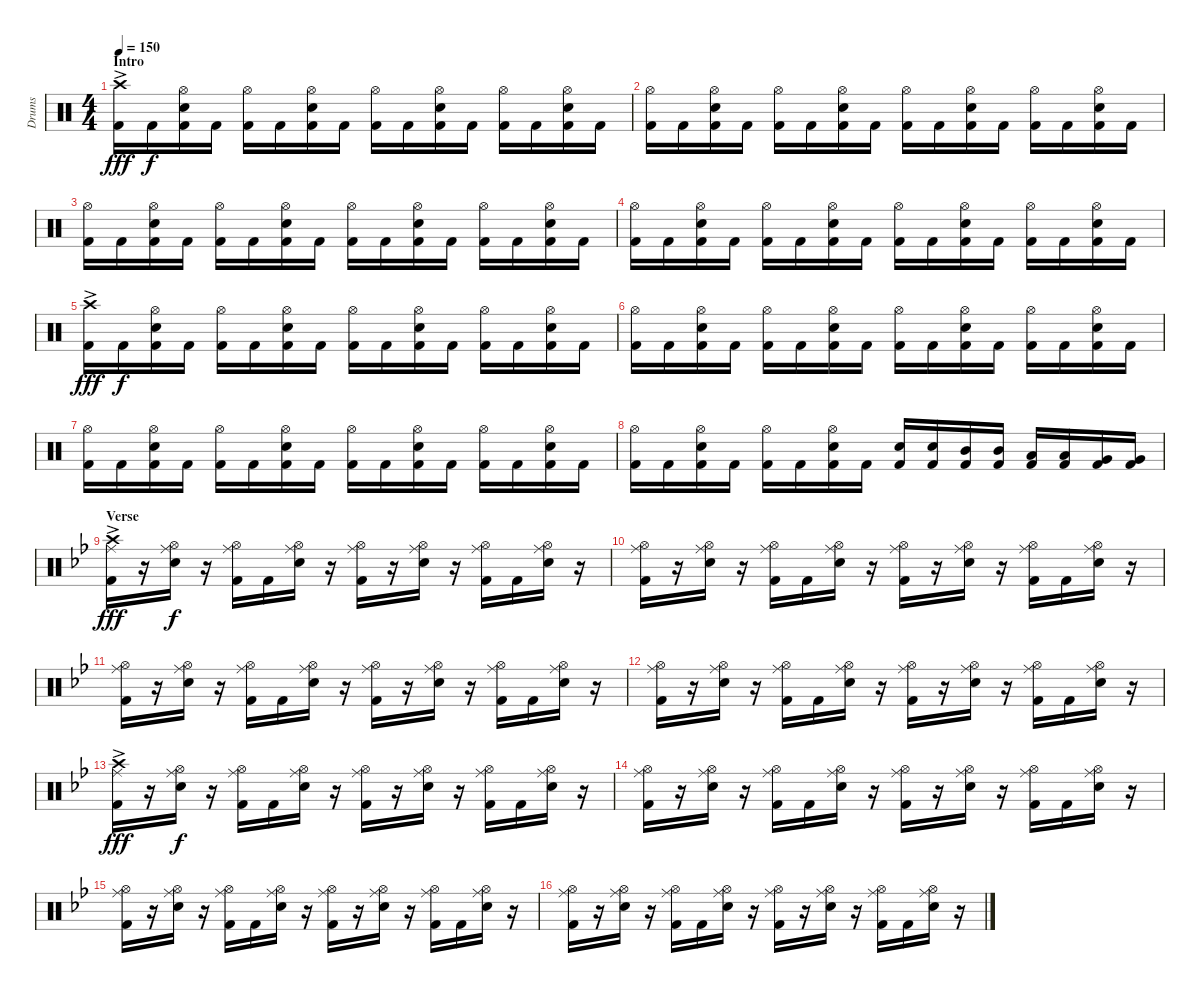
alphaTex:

\track ("Drums" "Drums") {instrument percussion}
\staff {score}
\articulation defaults
\ts (4 4)
\section ("" "Intro")
\tempo 150
\clef neutral
\ks aminor
("Kick (hit) 2"{ac} "Crash high (hit)").16{dy fff} "Kick (hit) 2".16{dy f} ("Kick (hit) 2" "Electric Snare (hit)" "Hi-Hat (open)").16 "Kick (hit) 2".16 ("Kick (hit) 2" "Hi-Hat (open)").16 "Kick (hit) 2".16 ("Kick (hit) 2" "Electric Snare (hit)" "Hi-Hat (open)").16 "Kick (hit) 2".16 ("Kick (hit) 2" "Hi-Hat (open)").16 "Kick (hit) 2".16 ("Kick (hit) 2" "Electric Snare (hit)" "Hi-Hat (open)").16 "Kick (hit) 2".16 ("Kick (hit) 2" "Hi-Hat (open)").16 "Kick (hit) 2".16 ("Kick (hit) 2" "Electric Snare (hit)" "Hi-Hat (open)").16 "Kick (hit) 2".16 |
("Kick (hit) 2" "Hi-Hat (open)").16 "Kick (hit) 2".16 ("Kick (hit) 2" "Electric Snare (hit)" "Hi-Hat (open)").16 "Kick (hit) 2".16 ("Kick (hit) 2" "Hi-Hat (open)").16 "Kick (hit) 2".16 ("Kick (hit) 2" "Electric Snare (hit)" "Hi-Hat (open)").16 "Kick (hit) 2".16 ("Kick (hit) 2" "Hi-Hat (open)").16 "Kick (hit) 2".16 ("Kick (hit) 2" "Electric Snare (hit)" "Hi-Hat (open)").16 "Kick (hit) 2".16 ("Kick (hit) 2" "Hi-Hat (open)").16 "Kick (hit) 2".16 ("Kick (hit) 2" "Electric Snare (hit)" "Hi-Hat (open)").16 "Kick (hit) 2".16 |
("Kick (hit) 2" "Hi-Hat (open)").16 "Kick (hit) 2".16 ("Kick (hit) 2" "Electric Snare (hit)" "Hi-Hat (open)").16 "Kick (hit) 2".16 ("Kick (hit) 2" "Hi-Hat (open)").16 "Kick (hit) 2".16 ("Kick (hit) 2" "Electric Snare (hit)" "Hi-Hat (open)").16 "Kick (hit) 2".16 ("Kick (hit) 2" "Hi-Hat (open)").16 "Kick (hit) 2".16 ("Kick (hit) 2" "Electric Snare (hit)" "Hi-Hat (open)").16 "Kick (hit) 2".16 ("Kick (hit) 2" "Hi-Hat (open)").16 "Kick (hit) 2".16 ("Kick (hit) 2" "Electric Snare (hit)" "Hi-Hat (open)").16 "Kick (hit) 2".16 |
("Kick (hit) 2" "Hi-Hat (open)").16 "Kick (hit) 2".16 ("Kick (hit) 2" "Electric Snare (hit)" "Hi-Hat (open)").16 "Kick (hit) 2".16 ("Kick (hit) 2" "Hi-Hat (open)").16 "Kick (hit) 2".16 ("Kick (hit) 2" "Electric Snare (hit)" "Hi-Hat (open)").16 "Kick (hit) 2".16 ("Kick (hit) 2" "Hi-Hat (open)").16 "Kick (hit) 2".16 ("Kick (hit) 2" "Electric Snare (hit)" "Hi-Hat (open)").16 "Kick (hit) 2".16 ("Kick (hit) 2" "Hi-Hat (open)").16 "Kick (hit) 2".16 ("Kick (hit) 2" "Electric Snare (hit)" "Hi-Hat (open)").16 "Kick (hit) 2".16 |
("Kick (hit) 2"{ac} "Crash high (hit)").16{dy fff} "Kick (hit) 2".16{dy f} ("Kick (hit) 2" "Electric Snare (hit)" "Hi-Hat (open)").16 "Kick (hit) 2".16 ("Kick (hit) 2" "Hi-Hat (open)").16 "Kick (hit) 2".16 ("Kick (hit) 2" "Electric Snare (hit)" "Hi-Hat (open)").16 "Kick (hit) 2".16 ("Kick (hit) 2" "Hi-Hat (open)").16 "Kick (hit) 2".16 ("Kick (hit) 2" "Electric Snare (hit)" "Hi-Hat (open)").16 "Kick (hit) 2".16 ("Kick (hit) 2" "Hi-Hat (open)").16 "Kick (hit) 2".16 ("Kick (hit) 2" "Electric Snare (hit)" "Hi-Hat (open)").16 "Kick (hit) 2".16 |
("Kick (hit) 2" "Hi-Hat (open)").16 "Kick (hit) 2".16 ("Kick (hit) 2" "Electric Snare (hit)" "Hi-Hat (open)").16 "Kick (hit) 2".16 ("Kick (hit) 2" "Hi-Hat (open)").16 "Kick (hit) 2".16 ("Kick (hit) 2" "Electric Snare (hit)" "Hi-Hat (open)").16 "Kick (hit) 2".16 ("Kick (hit) 2" "Hi-Hat (open)").16 "Kick (hit) 2".16 ("Kick (hit) 2" "Electric Snare (hit)" "Hi-Hat (open)").16 "Kick (hit) 2".16 ("Kick (hit) 2" "Hi-Hat (open)").16 "Kick (hit) 2".16 ("Kick (hit) 2" "Electric Snare (hit)" "Hi-Hat (open)").16 "Kick (hit) 2".16 |
("Kick (hit) 2" "Hi-Hat (open)").16 "Kick (hit) 2".16 ("Kick (hit) 2" "Electric Snare (hit)" "Hi-Hat (open)").16 "Kick (hit) 2".16 ("Kick (hit) 2" "Hi-Hat (open)").16 "Kick (hit) 2".16 ("Kick (hit) 2" "Electric Snare (hit)" "Hi-Hat (open)").16 "Kick (hit) 2".16 ("Kick (hit) 2" "Hi-Hat (open)").16 "Kick (hit) 2".16 ("Kick (hit) 2" "Electric Snare (hit)" "Hi-Hat (open)").16 "Kick (hit) 2".16 ("Kick (hit) 2" "Hi-Hat (open)").16 "Kick (hit) 2".16 ("Kick (hit) 2" "Electric Snare (hit)" "Hi-Hat (open)").16 "Kick (hit) 2".16 |
("Hi-Hat (open)" "Kick (hit) 2").16 "Kick (hit) 2".16 ("Hi-Hat (open)" "Electric Snare (hit)" "Kick (hit) 2").16 "Kick (hit) 2".16 ("Hi-Hat (open)" "Kick (hit) 2").16 "Kick (hit) 2".16 ("Hi-Hat (open)" "Electric Snare (hit)" "Kick (hit) 2").16 "Kick (hit) 2".16 ("Electric Snare (hit)" "Kick (hit) 2").16 ("Electric Snare (hit)" "Kick (hit) 2").16 ("Mid Tom (hit)" "Kick (hit) 2").16 ("Mid Tom (hit)" "Kick (hit) 2").16 ("Low Tom (hit)" "Kick (hit) 2").16 ("Low Tom (hit)" "Kick (hit) 2").16 ("Very Low Tom (hit)" "Kick (hit) 2").16 ("Very Low Tom (hit)" "Kick (hit) 2").16 |
\section ("" "Verse")
\ks gminor
("Crash high (hit)"{ac} "Ride (middle)" "Kick (hit) 2").16{dy fff} r.16 ("Hi-Hat (open)" "Ride (middle)" "Electric Snare (hit)").16{dy f} r.16 ("Hi-Hat (open)" "Ride (middle)" "Kick (hit) 2").16 "Kick (hit) 2".16 ("Hi-Hat (open)" "Ride (middle)" "Electric Snare (hit)").16 r.16 ("Hi-Hat (open)" "Ride (middle)" "Kick (hit) 2").16 r.16 ("Hi-Hat (open)" "Ride (middle)" "Electric Snare (hit)").16 r.16 ("Hi-Hat (open)" "Ride (middle)" "Kick (hit) 2").16 "Kick (hit) 2".16 ("Hi-Hat (open)" "Ride (middle)" "Electric Snare (hit)").16 r.16 |
("Hi-Hat (open)" "Ride (middle)" "Kick (hit) 2").16 r.16 ("Hi-Hat (open)" "Ride (middle)" "Electric Snare (hit)").16 r.16 ("Hi-Hat (open)" "Ride (middle)" "Kick (hit) 2").16 "Kick (hit) 2".16 ("Hi-Hat (open)" "Ride (middle)" "Electric Snare (hit)").16 r.16 ("Hi-Hat (open)" "Ride (middle)" "Kick (hit) 2").16 r.16 ("Hi-Hat (open)" "Ride (middle)" "Electric Snare (hit)").16 r.16 ("Hi-Hat (open)" "Ride (middle)" "Kick (hit) 2").16 "Kick (hit) 2".16 ("Hi-Hat (open)" "Ride (middle)" "Electric Snare (hit)").16 r.16 |
("Hi-Hat (open)" "Ride (middle)" "Kick (hit) 2").16 r.16 ("Hi-Hat (open)" "Ride (middle)" "Electric Snare (hit)").16 r.16 ("Hi-Hat (open)" "Ride (middle)" "Kick (hit) 2").16 "Kick (hit) 2".16 ("Hi-Hat (open)" "Ride (middle)" "Electric Snare (hit)").16 r.16 ("Hi-Hat (open)" "Ride (middle)" "Kick (hit) 2").16 r.16 ("Hi-Hat (open)" "Ride (middle)" "Electric Snare (hit)").16 r.16 ("Hi-Hat (open)" "Ride (middle)" "Kick (hit) 2").16 "Kick (hit) 2".16 ("Hi-Hat (open)" "Ride (middle)" "Electric Snare (hit)").16 r.16 |
("Hi-Hat (open)" "Ride (middle)" "Kick (hit) 2").16 r.16 ("Hi-Hat (open)" "Ride (middle)" "Electric Snare (hit)").16 r.16 ("Hi-Hat (open)" "Ride (middle)" "Kick (hit) 2").16 "Kick (hit) 2".16 ("Hi-Hat (open)" "Ride (middle)" "Electric Snare (hit)").16 r.16 ("Hi-Hat (open)" "Ride (middle)" "Kick (hit) 2").16 r.16 ("Hi-Hat (open)" "Ride (middle)" "Electric Snare (hit)").16 r.16 ("Hi-Hat (open)" "Ride (middle)" "Kick (hit) 2").16 "Kick (hit) 2".16 ("Hi-Hat (open)" "Ride (middle)" "Electric Snare (hit)").16 r.16 |
("Crash high (hit)"{ac} "Ride (middle)" "Kick (hit) 2").16{dy fff} r.16 ("Hi-Hat (open)" "Ride (middle)" "Electric Snare (hit)").16{dy f} r.16 ("Hi-Hat (open)" "Ride (middle)" "Kick (hit) 2").16 "Kick (hit) 2".16 ("Hi-Hat (open)" "Ride (middle)" "Electric Snare (hit)").16 r.16 ("Hi-Hat (open)" "Ride (middle)" "Kick (hit) 2").16 r.16 ("Hi-Hat (open)" "Ride (middle)" "Electric Snare (hit)").16 r.16 ("Hi-Hat (open)" "Ride (middle)" "Kick (hit) 2").16 "Kick (hit) 2".16 ("Hi-Hat (open)" "Ride (middle)" "Electric Snare (hit)").16 r.16 |
("Hi-Hat (open)" "Ride (middle)" "Kick (hit) 2").16 r.16 ("Hi-Hat (open)" "Ride (middle)" "Electric Snare (hit)").16 r.16 ("Hi-Hat (open)" "Ride (middle)" "Kick (hit) 2").16 "Kick (hit) 2".16 ("Hi-Hat (open)" "Ride (middle)" "Electric Snare (hit)").16 r.16 ("Hi-Hat (open)" "Ride (middle)" "Kick (hit) 2").16 r.16 ("Hi-Hat (open)" "Ride (middle)" "Electric Snare (hit)").16 r.16 ("Hi-Hat (open)" "Ride (middle)" "Kick (hit) 2").16 "Kick (hit) 2".16 ("Hi-Hat (open)" "Ride (middle)" "Electric Snare (hit)").16 r.16 |
("Hi-Hat (open)" "Ride (middle)" "Kick (hit) 2").16 r.16 ("Hi-Hat (open)" "Ride (middle)" "Electric Snare (hit)").16 r.16 ("Hi-Hat (open)" "Ride (middle)" "Kick (hit) 2").16 "Kick (hit) 2".16 ("Hi-Hat (open)" "Ride (middle)" "Electric Snare (hit)").16 r.16 ("Hi-Hat (open)" "Ride (middle)" "Kick (hit) 2").16 r.16 ("Hi-Hat (open)" "Ride (middle)" "Electric Snare (hit)").16 r.16 ("Hi-Hat (open)" "Ride (middle)" "Kick (hit) 2").16 "Kick (hit) 2".16 ("Hi-Hat (open)" "Ride (middle)" "Electric Snare (hit)").16 r.16 |
("Hi-Hat (open)" "Ride (middle)" "Kick (hit) 2").16 r.16 ("Hi-Hat (open)" "Ride (middle)" "Electric Snare (hit)").16 r.16 ("Hi-Hat (open)" "Ride (middle)" "Kick (hit) 2").16 "Kick (hit) 2".16 ("Hi-Hat (open)" "Ride (middle)" "Electric Snare (hit)").16 r.16 ("Hi-Hat (open)" "Ride (middle)" "Kick (hit) 2").16 r.16 ("Hi-Hat (open)" "Ride (middle)" "Electric Snare (hit)").16 r.16 ("Hi-Hat (open)" "Ride (middle)" "Kick (hit) 2").16 "Kick (hit) 2".16 ("Hi-Hat (open)" "Ride (middle)" "Electric Snare (hit)").16 r.16
